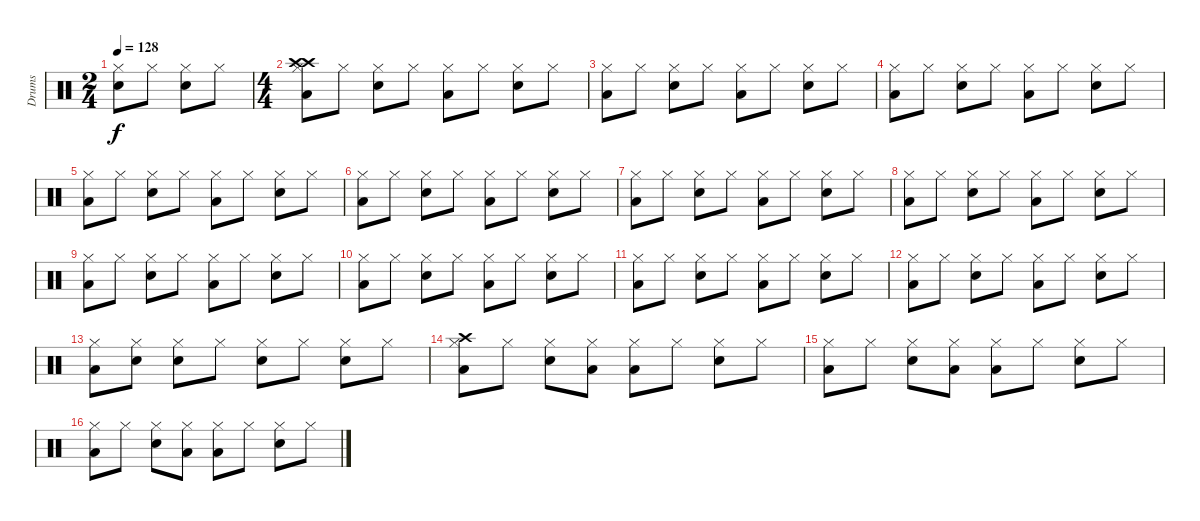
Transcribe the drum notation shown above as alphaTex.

\track ("Drums" "Drums") {instrument percussion}
\staff {score}
\articulation defaults
\ts (2 4)
\tempo 128
\clef neutral
\ks c
("Hi-Hat (closed)" "Snare (hit) 2").8{dy f} "Hi-Hat (closed)".8 ("Hi-Hat (closed)" "Snare (hit) 2").8 "Hi-Hat (closed)".8 |
\ts (4 4)
("Hi-Hat (closed)" "Low Tom (hit)" "Crash high (hit)" "Crash high (hit)").8 "Hi-Hat (closed)".8 ("Hi-Hat (closed)" "Snare (hit) 2").8 "Hi-Hat (closed)".8 ("Hi-Hat (closed)" "Low Tom (hit)").8 "Hi-Hat (closed)".8 ("Hi-Hat (closed)" "Snare (hit) 2").8 "Hi-Hat (closed)".8 |
("Hi-Hat (closed)" "Low Tom (hit)").8 "Hi-Hat (closed)".8 ("Hi-Hat (closed)" "Snare (hit) 2").8 "Hi-Hat (closed)".8 ("Hi-Hat (closed)" "Low Tom (hit)").8 "Hi-Hat (closed)".8 ("Hi-Hat (closed)" "Snare (hit) 2").8 "Hi-Hat (closed)".8 |
("Hi-Hat (closed)" "Low Tom (hit)").8 "Hi-Hat (closed)".8 ("Hi-Hat (closed)" "Snare (hit) 2").8 "Hi-Hat (closed)".8 ("Hi-Hat (closed)" "Low Tom (hit)").8 "Hi-Hat (closed)".8 ("Hi-Hat (closed)" "Snare (hit) 2").8 "Hi-Hat (closed)".8 |
("Hi-Hat (closed)" "Low Tom (hit)").8 "Hi-Hat (closed)".8 ("Hi-Hat (closed)" "Snare (hit) 2").8 "Hi-Hat (closed)".8 ("Hi-Hat (closed)" "Low Tom (hit)").8 "Hi-Hat (closed)".8 ("Hi-Hat (closed)" "Snare (hit) 2").8 "Hi-Hat (closed)".8 |
("Hi-Hat (closed)" "Low Tom (hit)").8 "Hi-Hat (closed)".8 ("Hi-Hat (closed)" "Snare (hit) 2").8 "Hi-Hat (closed)".8 ("Hi-Hat (closed)" "Low Tom (hit)").8 "Hi-Hat (closed)".8 ("Hi-Hat (closed)" "Snare (hit) 2").8 "Hi-Hat (closed)".8 |
("Hi-Hat (closed)" "Low Tom (hit)").8 "Hi-Hat (closed)".8 ("Hi-Hat (closed)" "Snare (hit) 2").8 "Hi-Hat (closed)".8 ("Hi-Hat (closed)" "Low Tom (hit)").8 "Hi-Hat (closed)".8 ("Hi-Hat (closed)" "Snare (hit) 2").8 "Hi-Hat (closed)".8 |
("Hi-Hat (closed)" "Low Tom (hit)").8 "Hi-Hat (closed)".8 ("Hi-Hat (closed)" "Snare (hit) 2").8 "Hi-Hat (closed)".8 ("Hi-Hat (closed)" "Low Tom (hit)").8 "Hi-Hat (closed)".8 ("Hi-Hat (closed)" "Snare (hit) 2").8 "Hi-Hat (closed)".8 |
("Hi-Hat (closed)" "Low Tom (hit)").8 "Hi-Hat (closed)".8 ("Hi-Hat (closed)" "Snare (hit) 2").8 "Hi-Hat (closed)".8 ("Hi-Hat (closed)" "Low Tom (hit)").8 "Hi-Hat (closed)".8 ("Hi-Hat (closed)" "Snare (hit) 2").8 "Hi-Hat (closed)".8 |
("Hi-Hat (closed)" "Low Tom (hit)").8 "Hi-Hat (closed)".8 ("Hi-Hat (closed)" "Snare (hit) 2").8 "Hi-Hat (closed)".8 ("Hi-Hat (closed)" "Low Tom (hit)").8 "Hi-Hat (closed)".8 ("Hi-Hat (closed)" "Snare (hit) 2").8 "Hi-Hat (closed)".8 |
("Hi-Hat (closed)" "Low Tom (hit)").8 "Hi-Hat (closed)".8 ("Hi-Hat (closed)" "Snare (hit) 2").8 "Hi-Hat (closed)".8 ("Hi-Hat (closed)" "Low Tom (hit)").8 "Hi-Hat (closed)".8 ("Hi-Hat (closed)" "Snare (hit) 2").8 "Hi-Hat (closed)".8 |
("Hi-Hat (closed)" "Low Tom (hit)").8 "Hi-Hat (closed)".8 ("Hi-Hat (closed)" "Snare (hit) 2").8 "Hi-Hat (closed)".8 ("Hi-Hat (closed)" "Low Tom (hit)").8 "Hi-Hat (closed)".8 ("Hi-Hat (closed)" "Snare (hit) 2").8 "Hi-Hat (closed)".8 |
("Hi-Hat (closed)" "Low Tom (hit)").8 ("Hi-Hat (closed)" "Snare (hit) 2").8 ("Hi-Hat (closed)" "Snare (hit) 2").8 "Hi-Hat (closed)".8 ("Hi-Hat (closed)" "Snare (hit) 2").8 "Hi-Hat (closed)".8 ("Hi-Hat (closed)" "Snare (hit) 2").8 "Hi-Hat (closed)".8 |
("Hi-Hat (closed)" "Low Tom (hit)" "Crash high (hit)").8 "Hi-Hat (closed)".8 ("Hi-Hat (closed)" "Snare (hit) 2").8 ("Hi-Hat (closed)" "Low Tom (hit)").8 ("Hi-Hat (closed)" "Low Tom (hit)").8 "Hi-Hat (closed)".8 ("Hi-Hat (closed)" "Snare (hit) 2").8 "Hi-Hat (closed)".8 |
("Hi-Hat (closed)" "Low Tom (hit)").8 "Hi-Hat (closed)".8 ("Hi-Hat (closed)" "Snare (hit) 2").8 ("Hi-Hat (closed)" "Low Tom (hit)").8 ("Hi-Hat (closed)" "Low Tom (hit)").8 "Hi-Hat (closed)".8 ("Hi-Hat (closed)" "Snare (hit) 2").8 "Hi-Hat (closed)".8 |
("Hi-Hat (closed)" "Low Tom (hit)").8 "Hi-Hat (closed)".8 ("Hi-Hat (closed)" "Snare (hit) 2").8 ("Hi-Hat (closed)" "Low Tom (hit)").8 ("Hi-Hat (closed)" "Low Tom (hit)").8 "Hi-Hat (closed)".8 ("Hi-Hat (closed)" "Snare (hit) 2").8 "Hi-Hat (closed)".8
